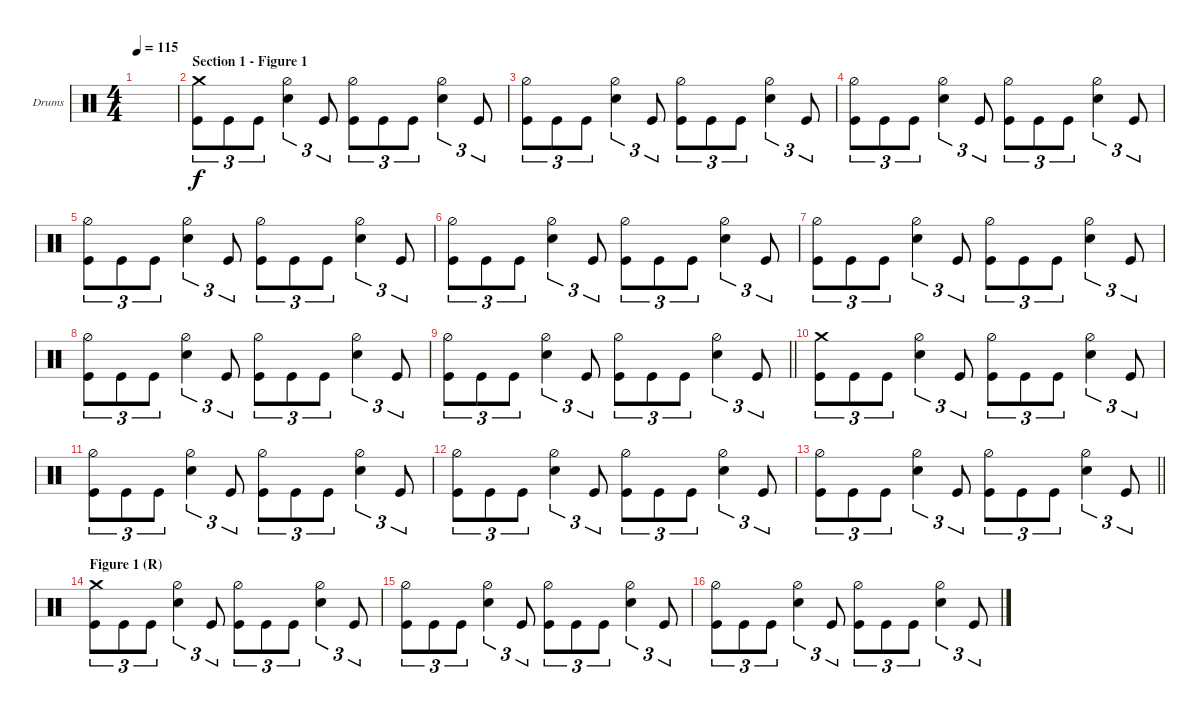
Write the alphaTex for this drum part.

\defaultSystemsLayout 4
\bracketExtendMode groupsimilarinstruments
\firstSystemTrackNameOrientation horizontal
\otherSystemsTrackNameOrientation horizontal
\track ("Drums" "Drums") {instrument percussion}
\staff {score}
\articulation defaults
\ts (4 4)
\tempo 115
\clef neutral
\ks c
|
\section ("" "Section 1 - Figure 1")
\ks aminor
("Kick (hit)" "Crash medium (hit)").8{tu (3 2)} "Kick (hit)".8{tu (3 2)} "Kick (hit)".8{tu (3 2)} ("Snare (hit) 2" "Hi-Hat (half)").4{tu (3 2)} "Kick (hit)".8{tu (3 2)} ("Kick (hit)" "Hi-Hat (half)").8{tu (3 2)} "Kick (hit)".8{tu (3 2)} "Kick (hit)".8{tu (3 2)} ("Snare (hit) 2" "Hi-Hat (half)").4{tu (3 2)} "Kick (hit)".8{tu (3 2)} |
("Kick (hit)" "Hi-Hat (half)").8{tu (3 2)} "Kick (hit)".8{tu (3 2)} "Kick (hit)".8{tu (3 2)} ("Snare (hit) 2" "Hi-Hat (half)").4{tu (3 2)} "Kick (hit)".8{tu (3 2)} ("Kick (hit)" "Hi-Hat (half)").8{tu (3 2)} "Kick (hit)".8{tu (3 2)} "Kick (hit)".8{tu (3 2)} ("Snare (hit) 2" "Hi-Hat (half)").4{tu (3 2)} "Kick (hit)".8{tu (3 2)} |
("Kick (hit)" "Hi-Hat (half)").8{tu (3 2)} "Kick (hit)".8{tu (3 2)} "Kick (hit)".8{tu (3 2)} ("Snare (hit) 2" "Hi-Hat (half)").4{tu (3 2)} "Kick (hit)".8{tu (3 2)} ("Kick (hit)" "Hi-Hat (half)").8{tu (3 2)} "Kick (hit)".8{tu (3 2)} "Kick (hit)".8{tu (3 2)} ("Snare (hit) 2" "Hi-Hat (half)").4{tu (3 2)} "Kick (hit)".8{tu (3 2)} |
("Kick (hit)" "Hi-Hat (half)").8{tu (3 2)} "Kick (hit)".8{tu (3 2)} "Kick (hit)".8{tu (3 2)} ("Snare (hit) 2" "Hi-Hat (half)").4{tu (3 2)} "Kick (hit)".8{tu (3 2)} ("Kick (hit)" "Hi-Hat (half)").8{tu (3 2)} "Kick (hit)".8{tu (3 2)} "Kick (hit)".8{tu (3 2)} ("Snare (hit) 2" "Hi-Hat (half)").4{tu (3 2)} "Kick (hit)".8{tu (3 2)} |
("Kick (hit)" "Hi-Hat (half)").8{tu (3 2)} "Kick (hit)".8{tu (3 2)} "Kick (hit)".8{tu (3 2)} ("Snare (hit) 2" "Hi-Hat (half)").4{tu (3 2)} "Kick (hit)".8{tu (3 2)} ("Kick (hit)" "Hi-Hat (half)").8{tu (3 2)} "Kick (hit)".8{tu (3 2)} "Kick (hit)".8{tu (3 2)} ("Snare (hit) 2" "Hi-Hat (half)").4{tu (3 2)} "Kick (hit)".8{tu (3 2)} |
("Kick (hit)" "Hi-Hat (half)").8{tu (3 2)} "Kick (hit)".8{tu (3 2)} "Kick (hit)".8{tu (3 2)} ("Snare (hit) 2" "Hi-Hat (half)").4{tu (3 2)} "Kick (hit)".8{tu (3 2)} ("Kick (hit)" "Hi-Hat (half)").8{tu (3 2)} "Kick (hit)".8{tu (3 2)} "Kick (hit)".8{tu (3 2)} ("Snare (hit) 2" "Hi-Hat (half)").4{tu (3 2)} "Kick (hit)".8{tu (3 2)} |
("Kick (hit)" "Hi-Hat (half)").8{tu (3 2)} "Kick (hit)".8{tu (3 2)} "Kick (hit)".8{tu (3 2)} ("Snare (hit) 2" "Hi-Hat (half)").4{tu (3 2)} "Kick (hit)".8{tu (3 2)} ("Kick (hit)" "Hi-Hat (half)").8{tu (3 2)} "Kick (hit)".8{tu (3 2)} "Kick (hit)".8{tu (3 2)} ("Snare (hit) 2" "Hi-Hat (half)").4{tu (3 2)} "Kick (hit)".8{tu (3 2)} |
\barLineRight lightlight
("Kick (hit)" "Hi-Hat (half)").8{tu (3 2)} "Kick (hit)".8{tu (3 2)} "Kick (hit)".8{tu (3 2)} ("Snare (hit) 2" "Hi-Hat (half)").4{tu (3 2)} "Kick (hit)".8{tu (3 2)} ("Kick (hit)" "Hi-Hat (half)").8{tu (3 2)} "Kick (hit)".8{tu (3 2)} "Kick (hit)".8{tu (3 2)} ("Snare (hit) 2" "Hi-Hat (half)").4{tu (3 2)} "Kick (hit)".8{tu (3 2)} |
("Kick (hit)" "Crash medium (hit)").8{tu (3 2)} "Kick (hit)".8{tu (3 2)} "Kick (hit)".8{tu (3 2)} ("Snare (hit) 2" "Hi-Hat (half)").4{tu (3 2)} "Kick (hit)".8{tu (3 2)} ("Kick (hit)" "Hi-Hat (half)").8{tu (3 2)} "Kick (hit)".8{tu (3 2)} "Kick (hit)".8{tu (3 2)} ("Snare (hit) 2" "Hi-Hat (half)").4{tu (3 2)} "Kick (hit)".8{tu (3 2)} |
("Kick (hit)" "Hi-Hat (half)").8{tu (3 2)} "Kick (hit)".8{tu (3 2)} "Kick (hit)".8{tu (3 2)} ("Snare (hit) 2" "Hi-Hat (half)").4{tu (3 2)} "Kick (hit)".8{tu (3 2)} ("Kick (hit)" "Hi-Hat (half)").8{tu (3 2)} "Kick (hit)".8{tu (3 2)} "Kick (hit)".8{tu (3 2)} ("Snare (hit) 2" "Hi-Hat (half)").4{tu (3 2)} "Kick (hit)".8{tu (3 2)} |
("Kick (hit)" "Hi-Hat (half)").8{tu (3 2)} "Kick (hit)".8{tu (3 2)} "Kick (hit)".8{tu (3 2)} ("Snare (hit) 2" "Hi-Hat (half)").4{tu (3 2)} "Kick (hit)".8{tu (3 2)} ("Kick (hit)" "Hi-Hat (half)").8{tu (3 2)} "Kick (hit)".8{tu (3 2)} "Kick (hit)".8{tu (3 2)} ("Snare (hit) 2" "Hi-Hat (half)").4{tu (3 2)} "Kick (hit)".8{tu (3 2)} |
\barLineRight lightlight
("Kick (hit)" "Hi-Hat (half)").8{tu (3 2)} "Kick (hit)".8{tu (3 2)} "Kick (hit)".8{tu (3 2)} ("Snare (hit) 2" "Hi-Hat (half)").4{tu (3 2)} "Kick (hit)".8{tu (3 2)} ("Kick (hit)" "Hi-Hat (half)").8{tu (3 2)} "Kick (hit)".8{tu (3 2)} "Kick (hit)".8{tu (3 2)} ("Snare (hit) 2" "Hi-Hat (half)").4{tu (3 2)} "Kick (hit)".8{tu (3 2)} |
\section ("" "Figure 1 (R)")
("Kick (hit)" "Crash medium (hit)").8{tu (3 2)} "Kick (hit)".8{tu (3 2)} "Kick (hit)".8{tu (3 2)} ("Snare (hit) 2" "Hi-Hat (half)").4{tu (3 2)} "Kick (hit)".8{tu (3 2)} ("Kick (hit)" "Hi-Hat (half)").8{tu (3 2)} "Kick (hit)".8{tu (3 2)} "Kick (hit)".8{tu (3 2)} ("Snare (hit) 2" "Hi-Hat (half)").4{tu (3 2)} "Kick (hit)".8{tu (3 2)} |
("Kick (hit)" "Hi-Hat (half)").8{tu (3 2)} "Kick (hit)".8{tu (3 2)} "Kick (hit)".8{tu (3 2)} ("Snare (hit) 2" "Hi-Hat (half)").4{tu (3 2)} "Kick (hit)".8{tu (3 2)} ("Kick (hit)" "Hi-Hat (half)").8{tu (3 2)} "Kick (hit)".8{tu (3 2)} "Kick (hit)".8{tu (3 2)} ("Snare (hit) 2" "Hi-Hat (half)").4{tu (3 2)} "Kick (hit)".8{tu (3 2)} |
("Kick (hit)" "Hi-Hat (half)").8{tu (3 2)} "Kick (hit)".8{tu (3 2)} "Kick (hit)".8{tu (3 2)} ("Snare (hit) 2" "Hi-Hat (half)").4{tu (3 2)} "Kick (hit)".8{tu (3 2)} ("Kick (hit)" "Hi-Hat (half)").8{tu (3 2)} "Kick (hit)".8{tu (3 2)} "Kick (hit)".8{tu (3 2)} ("Snare (hit) 2" "Hi-Hat (half)").4{tu (3 2)} "Kick (hit)".8{tu (3 2)}
